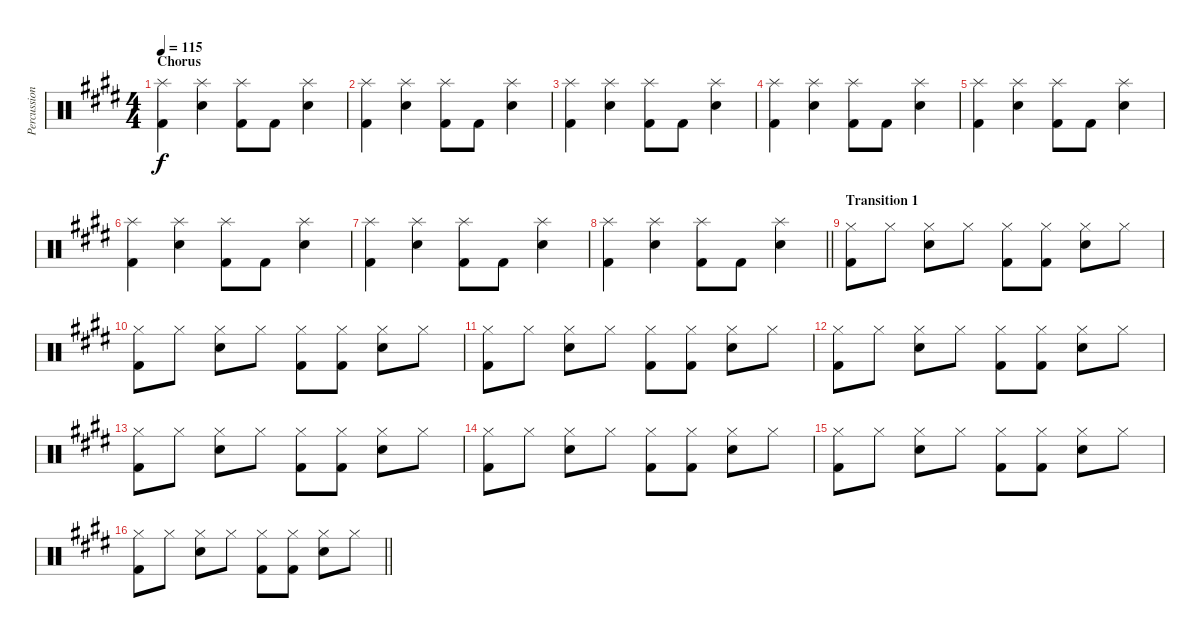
\track ("Percussion" "Percussion") {instrument percussion}
\staff {score}
\articulation defaults
\ts (4 4)
\section ("" "Chorus")
\tempo 115
\clef neutral
\ks e
("Kick (hit) 2" "Splash (hit)").4{dy f} ("Electric Snare (hit)" "Splash (hit)").4 ("Kick (hit) 2" "Splash (hit)").8 "Kick (hit) 2".8 ("Electric Snare (hit)" "Splash (hit)").4 |
("Kick (hit) 2" "Splash (hit)").4 ("Electric Snare (hit)" "Splash (hit)").4 ("Kick (hit) 2" "Splash (hit)").8 "Kick (hit) 2".8 ("Electric Snare (hit)" "Splash (hit)").4 |
("Kick (hit) 2" "Splash (hit)").4 ("Electric Snare (hit)" "Splash (hit)").4 ("Kick (hit) 2" "Splash (hit)").8 "Kick (hit) 2".8 ("Electric Snare (hit)" "Splash (hit)").4 |
("Kick (hit) 2" "Splash (hit)").4 ("Electric Snare (hit)" "Splash (hit)").4 ("Kick (hit) 2" "Splash (hit)").8 "Kick (hit) 2".8 ("Electric Snare (hit)" "Splash (hit)").4 |
("Kick (hit) 2" "Splash (hit)").4 ("Electric Snare (hit)" "Splash (hit)").4 ("Kick (hit) 2" "Splash (hit)").8 "Kick (hit) 2".8 ("Electric Snare (hit)" "Splash (hit)").4 |
("Kick (hit) 2" "Splash (hit)").4 ("Electric Snare (hit)" "Splash (hit)").4 ("Kick (hit) 2" "Splash (hit)").8 "Kick (hit) 2".8 ("Electric Snare (hit)" "Splash (hit)").4 |
("Kick (hit) 2" "Splash (hit)").4 ("Electric Snare (hit)" "Splash (hit)").4 ("Kick (hit) 2" "Splash (hit)").8 "Kick (hit) 2".8 ("Electric Snare (hit)" "Splash (hit)").4 |
\barLineRight lightlight
("Kick (hit) 2" "Splash (hit)").4 ("Electric Snare (hit)" "Splash (hit)").4 ("Kick (hit) 2" "Splash (hit)").8 "Kick (hit) 2".8 ("Electric Snare (hit)" "Splash (hit)").4 |
\section ("" "Transition 1")
("Kick (hit) 2" "Hi-Hat (closed)").8 "Hi-Hat (closed)".8 ("Electric Snare (hit)" "Hi-Hat (closed)").8 "Hi-Hat (closed)".8 ("Kick (hit) 2" "Hi-Hat (closed)").8 ("Kick (hit) 2" "Hi-Hat (closed)").8 ("Electric Snare (hit)" "Hi-Hat (closed)").8 "Hi-Hat (closed)".8 |
("Kick (hit) 2" "Hi-Hat (closed)").8 "Hi-Hat (closed)".8 ("Electric Snare (hit)" "Hi-Hat (closed)").8 "Hi-Hat (closed)".8 ("Kick (hit) 2" "Hi-Hat (closed)").8 ("Kick (hit) 2" "Hi-Hat (closed)").8 ("Electric Snare (hit)" "Hi-Hat (closed)").8 "Hi-Hat (closed)".8 |
("Kick (hit) 2" "Hi-Hat (closed)").8 "Hi-Hat (closed)".8 ("Electric Snare (hit)" "Hi-Hat (closed)").8 "Hi-Hat (closed)".8 ("Kick (hit) 2" "Hi-Hat (closed)").8 ("Kick (hit) 2" "Hi-Hat (closed)").8 ("Electric Snare (hit)" "Hi-Hat (closed)").8 "Hi-Hat (closed)".8 |
("Kick (hit) 2" "Hi-Hat (closed)").8 "Hi-Hat (closed)".8 ("Electric Snare (hit)" "Hi-Hat (closed)").8 "Hi-Hat (closed)".8 ("Kick (hit) 2" "Hi-Hat (closed)").8 ("Kick (hit) 2" "Hi-Hat (closed)").8 ("Electric Snare (hit)" "Hi-Hat (closed)").8 "Hi-Hat (closed)".8 |
("Kick (hit) 2" "Hi-Hat (closed)").8 "Hi-Hat (closed)".8 ("Electric Snare (hit)" "Hi-Hat (closed)").8 "Hi-Hat (closed)".8 ("Kick (hit) 2" "Hi-Hat (closed)").8 ("Kick (hit) 2" "Hi-Hat (closed)").8 ("Electric Snare (hit)" "Hi-Hat (closed)").8 "Hi-Hat (closed)".8 |
("Kick (hit) 2" "Hi-Hat (closed)").8 "Hi-Hat (closed)".8 ("Electric Snare (hit)" "Hi-Hat (closed)").8 "Hi-Hat (closed)".8 ("Kick (hit) 2" "Hi-Hat (closed)").8 ("Kick (hit) 2" "Hi-Hat (closed)").8 ("Electric Snare (hit)" "Hi-Hat (closed)").8 "Hi-Hat (closed)".8 |
("Kick (hit) 2" "Hi-Hat (closed)").8 "Hi-Hat (closed)".8 ("Electric Snare (hit)" "Hi-Hat (closed)").8 "Hi-Hat (closed)".8 ("Kick (hit) 2" "Hi-Hat (closed)").8 ("Kick (hit) 2" "Hi-Hat (closed)").8 ("Electric Snare (hit)" "Hi-Hat (closed)").8 "Hi-Hat (closed)".8 |
\barLineRight lightlight
("Kick (hit) 2" "Hi-Hat (closed)").8 "Hi-Hat (closed)".8 ("Electric Snare (hit)" "Hi-Hat (closed)").8 "Hi-Hat (closed)".8 ("Kick (hit) 2" "Hi-Hat (closed)").8 ("Kick (hit) 2" "Hi-Hat (closed)").8 ("Electric Snare (hit)" "Hi-Hat (closed)").8 "Hi-Hat (closed)".8
